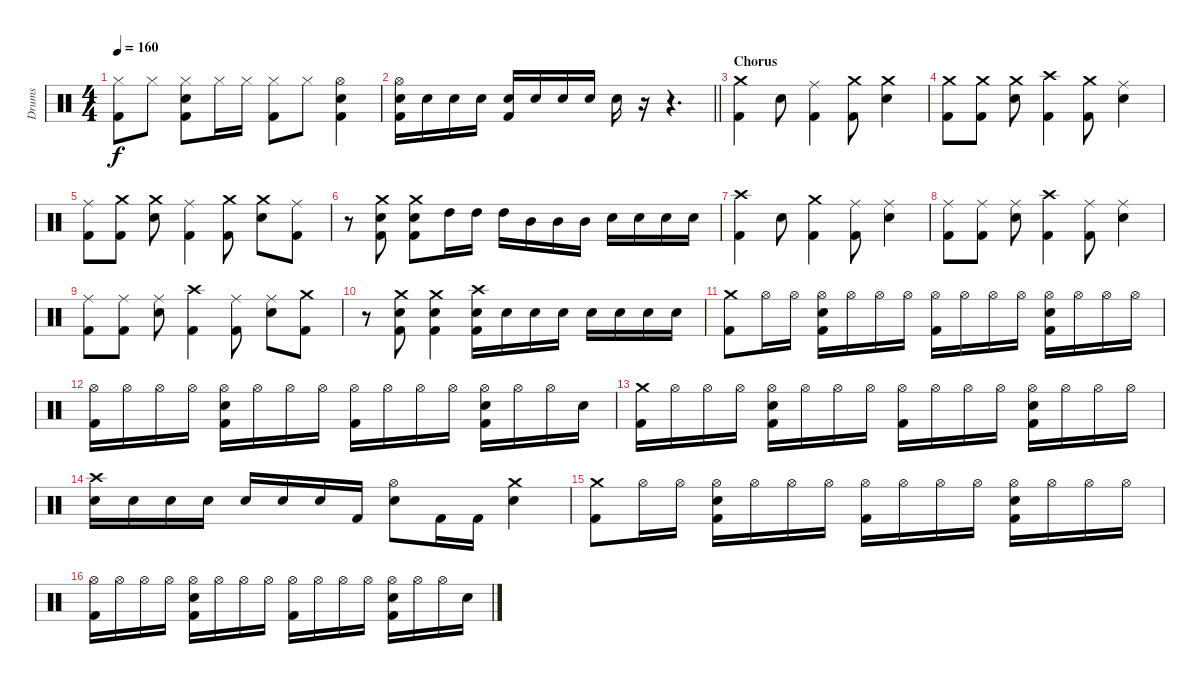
\track ("Drums" "Drums") {instrument percussion}
\staff {score}
\articulation defaults
\ts (4 4)
\tempo 160
\clef neutral
\ks c
("Hi-Hat (closed)" "Kick (hit) 2").8{dy f} "Hi-Hat (closed)".8 ("Hi-Hat (closed)" "Snare (hit) 2" "Kick (hit) 2").8 "Hi-Hat (closed)".16 "Hi-Hat (closed)".16 ("Hi-Hat (closed)" "Kick (hit) 2").8 "Hi-Hat (closed)".8 ("Hi-Hat (open)" "Snare (hit) 2" "Kick (hit) 2").4 |
\barLineRight lightlight
("Hi-Hat (open)" "Snare (hit) 2" "Kick (hit) 2").16 "Snare (hit) 2".16 "Snare (hit) 2".16 "Snare (hit) 2".16 ("Snare (hit) 2" "Kick (hit) 2").16 "Snare (hit) 2".16 "Snare (hit) 2".16 "Snare (hit) 2".16 "Snare (hit) 2".16 r.16 r.4{d} |
\section ("" "Chorus")
("Crash medium (hit)" "Kick (hit) 2").4 "Snare (hit) 2".8 ("Ride (middle)" "Kick (hit) 2").4 ("Crash medium (hit)" "Kick (hit) 2").8 ("Crash medium (hit)" "Snare (hit) 2").4 |
("Crash medium (hit)" "Kick (hit) 2").8 ("Crash medium (hit)" "Kick (hit) 2").8 ("Crash medium (hit)" "Snare (hit) 2").8 ("Crash high (hit)" "Kick (hit) 2").4 ("Crash medium (hit)" "Kick (hit) 2").8 ("Ride (middle)" "Snare (hit) 2").4 |
("Ride (middle)" "Kick (hit) 2").8 ("Crash medium (hit)" "Kick (hit) 2").8 ("Crash medium (hit)" "Snare (hit) 2").8 ("Ride (middle)" "Kick (hit) 2").4 ("Crash medium (hit)" "Kick (hit) 2").8 ("Crash medium (hit)" "Snare (hit) 2").8 ("Ride (middle)" "Kick (hit) 2").8 |
r.8 ("Crash medium (hit)" "Snare (hit) 2" "Kick (hit) 2").8 ("Crash medium (hit)" "Snare (hit) 2" "Kick (hit) 2").8 "High Tom (hit)".16 "High Tom (hit)".16 "High Tom (hit)".16 "Mid Tom (hit)".16 "Mid Tom (hit)".16 "Mid Tom (hit)".16 "Snare (hit) 2".16 "Snare (hit) 2".16 "Snare (hit) 2".16 "Snare (hit) 2".16 |
("Crash high (hit)" "Kick (hit) 2").4 "Snare (hit) 2".8 ("Crash medium (hit)" "Kick (hit) 2").4 ("Ride (middle)" "Kick (hit) 2").8 ("Ride (middle)" "Snare (hit) 2").4 |
("Ride (middle)" "Kick (hit) 2").8 ("Ride (middle)" "Kick (hit) 2").8 ("Ride (middle)" "Snare (hit) 2").8 ("Crash high (hit)" "Kick (hit) 2").4 ("Ride (middle)" "Kick (hit) 2").8 ("Ride (middle)" "Snare (hit) 2").4 |
("Ride (middle)" "Kick (hit) 2").8 ("Ride (middle)" "Kick (hit) 2").8 ("Ride (middle)" "Snare (hit) 2").8 ("Crash high (hit)" "Kick (hit) 2").4 ("Ride (middle)" "Kick (hit) 2").8 ("Ride (middle)" "Snare (hit) 2").8 ("Crash medium (hit)" "Kick (hit) 2").8 |
r.8 ("Crash medium (hit)" "Snare (hit) 2" "Kick (hit) 2").8 ("Crash medium (hit)" "Snare (hit) 2" "Kick (hit) 2").4 ("Crash high (hit)" "Snare (hit) 2" "Kick (hit) 2").16 "Snare (hit) 2".16 "Snare (hit) 2".16 "Snare (hit) 2".16 "Snare (hit) 2".16 "Snare (hit) 2".16 "Snare (hit) 2".16 "Snare (hit) 2".16 |
("Crash medium (hit)" "Kick (hit) 2").8 "Hi-Hat (open)".16 "Hi-Hat (open)".16 ("Hi-Hat (open)" "Snare (hit) 2" "Kick (hit) 2").16 "Hi-Hat (open)".16 "Hi-Hat (open)".16 "Hi-Hat (open)".16 ("Hi-Hat (open)" "Kick (hit) 2").16 "Hi-Hat (open)".16 "Hi-Hat (open)".16 "Hi-Hat (open)".16 ("Hi-Hat (open)" "Snare (hit) 2" "Kick (hit) 2").16 "Hi-Hat (open)".16 "Hi-Hat (open)".16 "Hi-Hat (open)".16 |
("Hi-Hat (open)" "Kick (hit) 2").16 "Hi-Hat (open)".16 "Hi-Hat (open)".16 "Hi-Hat (open)".16 ("Hi-Hat (open)" "Snare (hit) 2" "Kick (hit) 2").16 "Hi-Hat (open)".16 "Hi-Hat (open)".16 "Hi-Hat (open)".16 ("Hi-Hat (open)" "Kick (hit) 2").16 "Hi-Hat (open)".16 "Hi-Hat (open)".16 "Hi-Hat (open)".16 ("Hi-Hat (open)" "Snare (hit) 2" "Kick (hit) 2").16 "Hi-Hat (open)".16 "Hi-Hat (open)".16 "Snare (hit) 2".16 |
("Crash medium (hit)" "Kick (hit) 2").16 "Hi-Hat (open)".16 "Hi-Hat (open)".16 "Hi-Hat (open)".16 ("Hi-Hat (open)" "Snare (hit) 2" "Kick (hit) 2").16 "Hi-Hat (open)".16 "Hi-Hat (open)".16 "Hi-Hat (open)".16 ("Hi-Hat (open)" "Kick (hit) 2").16 "Hi-Hat (open)".16 "Hi-Hat (open)".16 "Hi-Hat (open)".16 ("Hi-Hat (open)" "Snare (hit) 2" "Kick (hit) 2").16 "Hi-Hat (open)".16 "Hi-Hat (open)".16 "Hi-Hat (open)".16 |
("Crash high (hit)" "Snare (hit) 2").16 "Snare (hit) 2".16 "Snare (hit) 2".16 "Snare (hit) 2".16 "Snare (hit) 2".16 "Snare (hit) 2".16 "Snare (hit) 2".16 "Kick (hit) 2".16 ("Hi-Hat (open)" "Snare (hit) 2").8 "Kick (hit) 2".16 "Kick (hit) 2".16 ("Crash medium (hit)" "Snare (hit) 2").4 |
("Crash medium (hit)" "Kick (hit) 2").8 "Hi-Hat (open)".16 "Hi-Hat (open)".16 ("Hi-Hat (open)" "Snare (hit) 2" "Kick (hit) 2").16 "Hi-Hat (open)".16 "Hi-Hat (open)".16 "Hi-Hat (open)".16 ("Hi-Hat (open)" "Kick (hit) 2").16 "Hi-Hat (open)".16 "Hi-Hat (open)".16 "Hi-Hat (open)".16 ("Hi-Hat (open)" "Snare (hit) 2" "Kick (hit) 2").16 "Hi-Hat (open)".16 "Hi-Hat (open)".16 "Hi-Hat (open)".16 |
("Hi-Hat (open)" "Kick (hit) 2").16 "Hi-Hat (open)".16 "Hi-Hat (open)".16 "Hi-Hat (open)".16 ("Hi-Hat (open)" "Snare (hit) 2" "Kick (hit) 2").16 "Hi-Hat (open)".16 "Hi-Hat (open)".16 "Hi-Hat (open)".16 ("Hi-Hat (open)" "Kick (hit) 2").16 "Hi-Hat (open)".16 "Hi-Hat (open)".16 "Hi-Hat (open)".16 ("Hi-Hat (open)" "Snare (hit) 2" "Kick (hit) 2").16 "Hi-Hat (open)".16 "Hi-Hat (open)".16 "Snare (hit) 2".16
